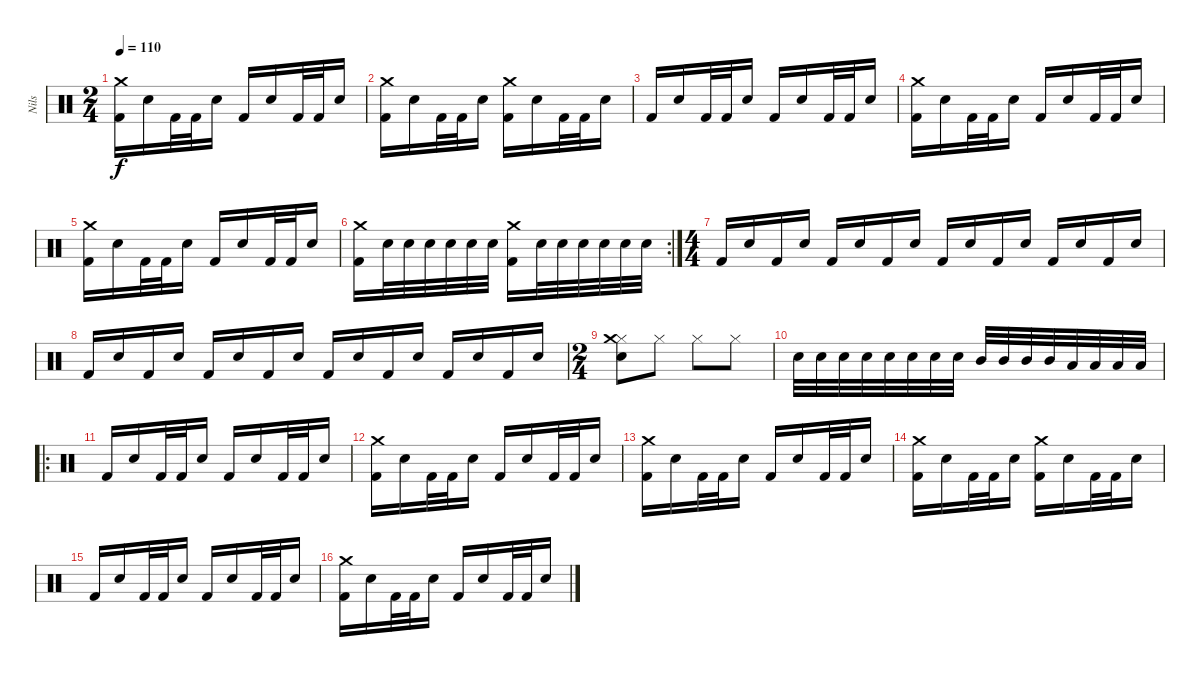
\track ("Nils" "Nils") {instrument percussion}
\staff {score}
\articulation defaults
\ts (2 4)
\tempo 110
\clef neutral
\ks c
("Crash medium (hit)" "Kick (hit) 2").16{dy f} "Snare (hit) 2".16 "Kick (hit) 2".32 "Kick (hit) 2".32 "Snare (hit) 2".16 "Kick (hit) 2".16 "Snare (hit) 2".16 "Kick (hit) 2".32 "Kick (hit) 2".32 "Snare (hit) 2".16 |
("Crash medium (hit)" "Kick (hit) 2").16 "Snare (hit) 2".16 "Kick (hit) 2".32 "Kick (hit) 2".32 "Snare (hit) 2".16 ("Crash medium (hit)" "Kick (hit) 2").16 "Snare (hit) 2".16 "Kick (hit) 2".32 "Kick (hit) 2".32 "Snare (hit) 2".16 |
"Kick (hit) 2".16 "Snare (hit) 2".16 "Kick (hit) 2".32 "Kick (hit) 2".32 "Snare (hit) 2".16 "Kick (hit) 2".16 "Snare (hit) 2".16 "Kick (hit) 2".32 "Kick (hit) 2".32 "Snare (hit) 2".16 |
("Crash medium (hit)" "Kick (hit) 2").16 "Snare (hit) 2".16 "Kick (hit) 2".32 "Kick (hit) 2".32 "Snare (hit) 2".16 "Kick (hit) 2".16 "Snare (hit) 2".16 "Kick (hit) 2".32 "Kick (hit) 2".32 "Snare (hit) 2".16 |
("Crash medium (hit)" "Kick (hit) 2").16 "Snare (hit) 2".16 "Kick (hit) 2".32 "Kick (hit) 2".32 "Snare (hit) 2".16 "Kick (hit) 2".16 "Snare (hit) 2".16 "Kick (hit) 2".32 "Kick (hit) 2".32 "Snare (hit) 2".16 |
\rc 2
("Crash medium (hit)" "Kick (hit) 2").16 "Snare (hit) 2".32 "Snare (hit) 2".32 "Snare (hit) 2".32 "Snare (hit) 2".32 "Snare (hit) 2".32 "Snare (hit) 2".32 ("Crash medium (hit)" "Kick (hit) 2").16 "Snare (hit) 2".32 "Snare (hit) 2".32 "Snare (hit) 2".32 "Snare (hit) 2".32 "Snare (hit) 2".32 "Snare (hit) 2".32 |
\ts (4 4)
"Kick (hit) 2".16 "Snare (hit) 2".16 "Kick (hit) 2".16 "Snare (hit) 2".16 "Kick (hit) 2".16 "Snare (hit) 2".16 "Kick (hit) 2".16 "Snare (hit) 2".16 "Kick (hit) 2".16 "Snare (hit) 2".16 "Kick (hit) 2".16 "Snare (hit) 2".16 "Kick (hit) 2".16 "Snare (hit) 2".16 "Kick (hit) 2".16 "Snare (hit) 2".16 |
"Kick (hit) 2".16 "Snare (hit) 2".16 "Kick (hit) 2".16 "Snare (hit) 2".16 "Kick (hit) 2".16 "Snare (hit) 2".16 "Kick (hit) 2".16 "Snare (hit) 2".16 "Kick (hit) 2".16 "Snare (hit) 2".16 "Kick (hit) 2".16 "Snare (hit) 2".16 "Kick (hit) 2".16 "Snare (hit) 2".16 "Kick (hit) 2".16 "Snare (hit) 2".16 |
\ts (2 4)
("Hi-Hat (closed)" "Crash medium (hit)" "Snare (hit) 2").8 "Hi-Hat (closed)".8 "Hi-Hat (closed)".8 "Hi-Hat (closed)".8 |
"Snare (hit) 2".32 "Snare (hit) 2".32 "Snare (hit) 2".32 "Snare (hit) 2".32 "Snare (hit) 2".32 "Snare (hit) 2".32 "Snare (hit) 2".32 "Snare (hit) 2".32 "Mid Tom (hit)".32 "Mid Tom (hit)".32 "Mid Tom (hit)".32 "Mid Tom (hit)".32 "Low Tom (hit)".32 "Low Tom (hit)".32 "Low Tom (hit)".32 "Low Tom (hit)".32 |
\ro "Kick (hit) 2".16 "Snare (hit) 2".16 "Kick (hit) 2".32 "Kick (hit) 2".32 "Snare (hit) 2".16 "Kick (hit) 2".16 "Snare (hit) 2".16 "Kick (hit) 2".32 "Kick (hit) 2".32 "Snare (hit) 2".16
|
("Crash medium (hit)" "Kick (hit) 2").16 "Snare (hit) 2".16 "Kick (hit) 2".32 "Kick (hit) 2".32 "Snare (hit) 2".16 "Kick (hit) 2".16 "Snare (hit) 2".16 "Kick (hit) 2".32 "Kick (hit) 2".32 "Snare (hit) 2".16 |
("Crash medium (hit)" "Kick (hit) 2").16 "Snare (hit) 2".16 "Kick (hit) 2".32 "Kick (hit) 2".32 "Snare (hit) 2".16 "Kick (hit) 2".16 "Snare (hit) 2".16 "Kick (hit) 2".32 "Kick (hit) 2".32 "Snare (hit) 2".16 |
("Crash medium (hit)" "Kick (hit) 2").16 "Snare (hit) 2".16 "Kick (hit) 2".32 "Kick (hit) 2".32 "Snare (hit) 2".16 ("Crash medium (hit)" "Kick (hit) 2").16 "Snare (hit) 2".16 "Kick (hit) 2".32 "Kick (hit) 2".32 "Snare (hit) 2".16 |
"Kick (hit) 2".16 "Snare (hit) 2".16 "Kick (hit) 2".32 "Kick (hit) 2".32 "Snare (hit) 2".16 "Kick (hit) 2".16 "Snare (hit) 2".16 "Kick (hit) 2".32 "Kick (hit) 2".32 "Snare (hit) 2".16 |
("Crash medium (hit)" "Kick (hit) 2").16 "Snare (hit) 2".16 "Kick (hit) 2".32 "Kick (hit) 2".32 "Snare (hit) 2".16 "Kick (hit) 2".16 "Snare (hit) 2".16 "Kick (hit) 2".32 "Kick (hit) 2".32 "Snare (hit) 2".16
